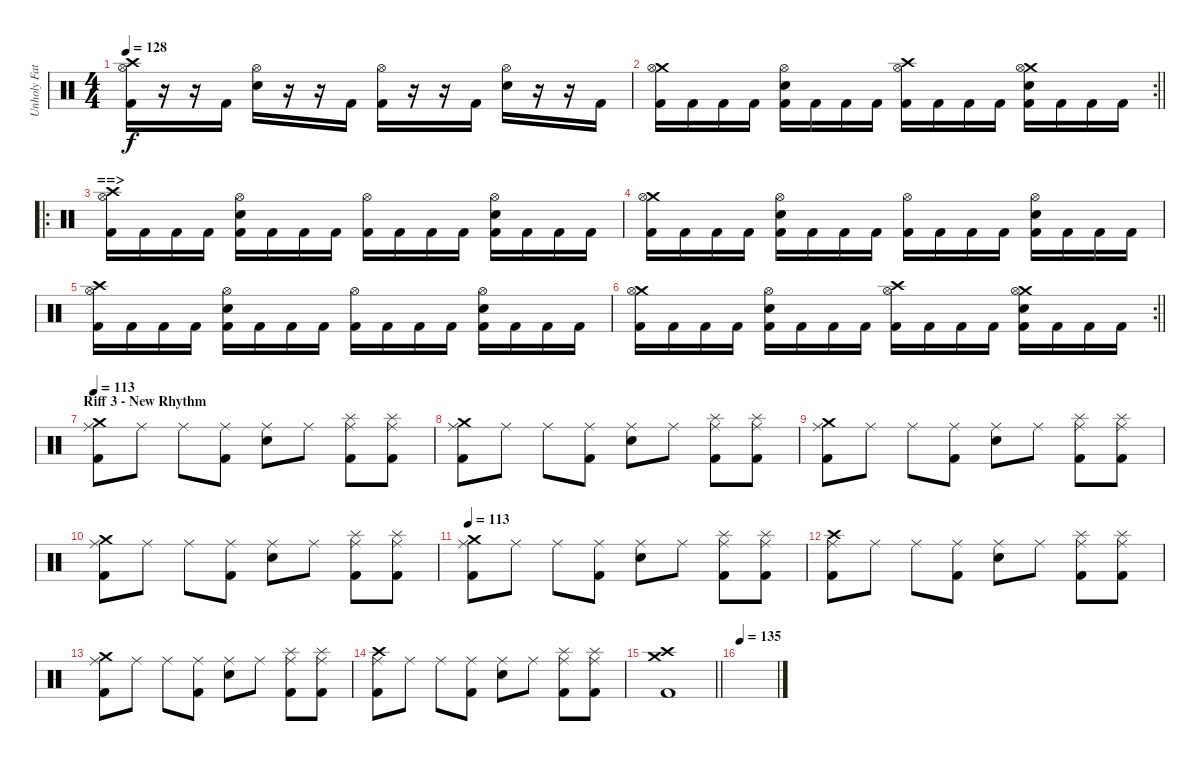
\track ("Unholy Father" "Unholy Fat") {instrument percussion}
\staff {score}
\articulation defaults
\ts (4 4)
\tempo 128
\clef neutral
\ks c
("Crash high (hit)" "Hi-Hat (open)" "Kick (hit) 2").16{dy f} r.16 r.16 "Kick (hit) 2".16 ("Hi-Hat (open)" "Snare (hit) 2").16 r.16 r.16 "Kick (hit) 2".16 ("Hi-Hat (open)" "Kick (hit) 2").16 r.16 r.16 "Kick (hit) 2".16 ("Hi-Hat (open)" "Snare (hit) 2").16 r.16 r.16 "Kick (hit) 2".16 |
\rc 2
\barLineRight lightlight
("Crash medium (hit)" "Hi-Hat (open)" "Kick (hit) 2").16 "Kick (hit) 2".16 "Kick (hit) 2".16 "Kick (hit) 2".16 ("Hi-Hat (open)" "Snare (hit) 2" "Kick (hit) 2").16 "Kick (hit) 2".16 "Kick (hit) 2".16 "Kick (hit) 2".16 ("Crash high (hit)" "Hi-Hat (open)" "Kick (hit) 2").16 "Kick (hit) 2".16 "Kick (hit) 2".16 "Kick (hit) 2".16 ("Crash medium (hit)" "Hi-Hat (open)" "Snare (hit) 2" "Kick (hit) 2").16 "Kick (hit) 2".16 "Kick (hit) 2".16 "Kick (hit) 2".16 |
\ro
\section ("" "==>")
("Crash high (hit)" "Hi-Hat (open)" "Kick (hit) 2").16 "Kick (hit) 2".16 "Kick (hit) 2".16 "Kick (hit) 2".16 ("Hi-Hat (open)" "Snare (hit) 2" "Kick (hit) 2").16 "Kick (hit) 2".16 "Kick (hit) 2".16 "Kick (hit) 2".16 ("Hi-Hat (open)" "Kick (hit) 2").16 "Kick (hit) 2".16 "Kick (hit) 2".16 "Kick (hit) 2".16 ("Hi-Hat (open)" "Snare (hit) 2" "Kick (hit) 2").16 "Kick (hit) 2".16 "Kick (hit) 2".16 "Kick (hit) 2".16 |
("Crash medium (hit)" "Hi-Hat (open)" "Kick (hit) 2").16 "Kick (hit) 2".16 "Kick (hit) 2".16 "Kick (hit) 2".16 ("Hi-Hat (open)" "Snare (hit) 2" "Kick (hit) 2").16 "Kick (hit) 2".16 "Kick (hit) 2".16 "Kick (hit) 2".16 ("Hi-Hat (open)" "Kick (hit) 2").16 "Kick (hit) 2".16 "Kick (hit) 2".16 "Kick (hit) 2".16 ("Hi-Hat (open)" "Snare (hit) 2" "Kick (hit) 2").16 "Kick (hit) 2".16 "Kick (hit) 2".16 "Kick (hit) 2".16 |
("Crash high (hit)" "Hi-Hat (open)" "Kick (hit) 2").16 "Kick (hit) 2".16 "Kick (hit) 2".16 "Kick (hit) 2".16 ("Hi-Hat (open)" "Snare (hit) 2" "Kick (hit) 2").16 "Kick (hit) 2".16 "Kick (hit) 2".16 "Kick (hit) 2".16 ("Hi-Hat (open)" "Kick (hit) 2").16 "Kick (hit) 2".16 "Kick (hit) 2".16 "Kick (hit) 2".16 ("Hi-Hat (open)" "Snare (hit) 2" "Kick (hit) 2").16 "Kick (hit) 2".16 "Kick (hit) 2".16 "Kick (hit) 2".16 |
\rc 2
\barLineRight lightlight
("Crash medium (hit)" "Hi-Hat (open)" "Kick (hit) 2").16 "Kick (hit) 2".16 "Kick (hit) 2".16 "Kick (hit) 2".16 ("Hi-Hat (open)" "Snare (hit) 2" "Kick (hit) 2").16 "Kick (hit) 2".16 "Kick (hit) 2".16 "Kick (hit) 2".16 ("Crash high (hit)" "Hi-Hat (open)" "Kick (hit) 2").16 "Kick (hit) 2".16 "Kick (hit) 2".16 "Kick (hit) 2".16 ("Crash medium (hit)" "Hi-Hat (open)" "Snare (hit) 2" "Kick (hit) 2").16 "Kick (hit) 2".16 "Kick (hit) 2".16 "Kick (hit) 2".16 |
\section ("" "Riff 3 - New Rhythm")
\tempo 113
("Crash medium (hit)" "Ride (middle)" "Kick (hit) 2").8 "Ride (middle)".8 "Ride (middle)".8 ("Ride (middle)" "Kick (hit) 2").8 ("Ride (middle)" "Snare (hit) 2").8 "Ride (middle)".8 ("Splash (hit)" "Ride (middle)" "Kick (hit) 2").8 ("Splash (hit)" "Ride (middle)" "Kick (hit) 2").8 |
("Crash medium (hit)" "Ride (middle)" "Kick (hit) 2").8 "Ride (middle)".8 "Ride (middle)".8 ("Ride (middle)" "Kick (hit) 2").8 ("Ride (middle)" "Snare (hit) 2").8 "Ride (middle)".8 ("Splash (hit)" "Ride (middle)" "Kick (hit) 2").8 ("Splash (hit)" "Ride (middle)" "Kick (hit) 2").8 |
("Crash medium (hit)" "Ride (middle)" "Kick (hit) 2").8 "Ride (middle)".8 "Ride (middle)".8 ("Ride (middle)" "Kick (hit) 2").8 ("Ride (middle)" "Snare (hit) 2").8 "Ride (middle)".8 ("Splash (hit)" "Ride (middle)" "Kick (hit) 2").8 ("Splash (hit)" "Ride (middle)" "Kick (hit) 2").8 |
("Crash medium (hit)" "Ride (middle)" "Kick (hit) 2").8 "Ride (middle)".8 "Ride (middle)".8 ("Ride (middle)" "Kick (hit) 2").8 ("Ride (middle)" "Snare (hit) 2").8 "Ride (middle)".8 ("Splash (hit)" "Ride (middle)" "Kick (hit) 2").8 ("Splash (hit)" "Ride (middle)" "Kick (hit) 2").8 |
\tempo 113
("Crash medium (hit)" "Ride (middle)" "Kick (hit) 2").8 "Ride (middle)".8 "Ride (middle)".8 ("Ride (middle)" "Kick (hit) 2").8 ("Ride (middle)" "Snare (hit) 2").8 "Ride (middle)".8 ("Splash (hit)" "Ride (middle)" "Kick (hit) 2").8 ("Splash (hit)" "Ride (middle)" "Kick (hit) 2").8 |
("Crash high (hit)" "Ride (middle)" "Kick (hit) 2").8 "Ride (middle)".8 "Ride (middle)".8 ("Ride (middle)" "Kick (hit) 2").8 ("Ride (middle)" "Snare (hit) 2").8 "Ride (middle)".8 ("Splash (hit)" "Ride (middle)" "Kick (hit) 2").8 ("Splash (hit)" "Ride (middle)" "Kick (hit) 2").8 |
("Crash medium (hit)" "Ride (middle)" "Kick (hit) 2").8 "Ride (middle)".8 "Ride (middle)".8 ("Ride (middle)" "Kick (hit) 2").8 ("Ride (middle)" "Snare (hit) 2").8 "Ride (middle)".8 ("Splash (hit)" "Ride (middle)" "Kick (hit) 2").8 ("Splash (hit)" "Ride (middle)" "Kick (hit) 2").8 |
("Crash high (hit)" "Ride (middle)" "Kick (hit) 2").8 "Ride (middle)".8 "Ride (middle)".8 ("Ride (middle)" "Kick (hit) 2").8 ("Ride (middle)" "Snare (hit) 2").8 "Ride (middle)".8 ("Splash (hit)" "Ride (middle)" "Kick (hit) 2").8 ("Splash (hit)" "Ride (middle)" "Kick (hit) 2").8 |
\barLineRight lightlight
("Crash high (hit)" "Crash medium (hit)" "Kick (hit) 2").1 |
\tempo 135
